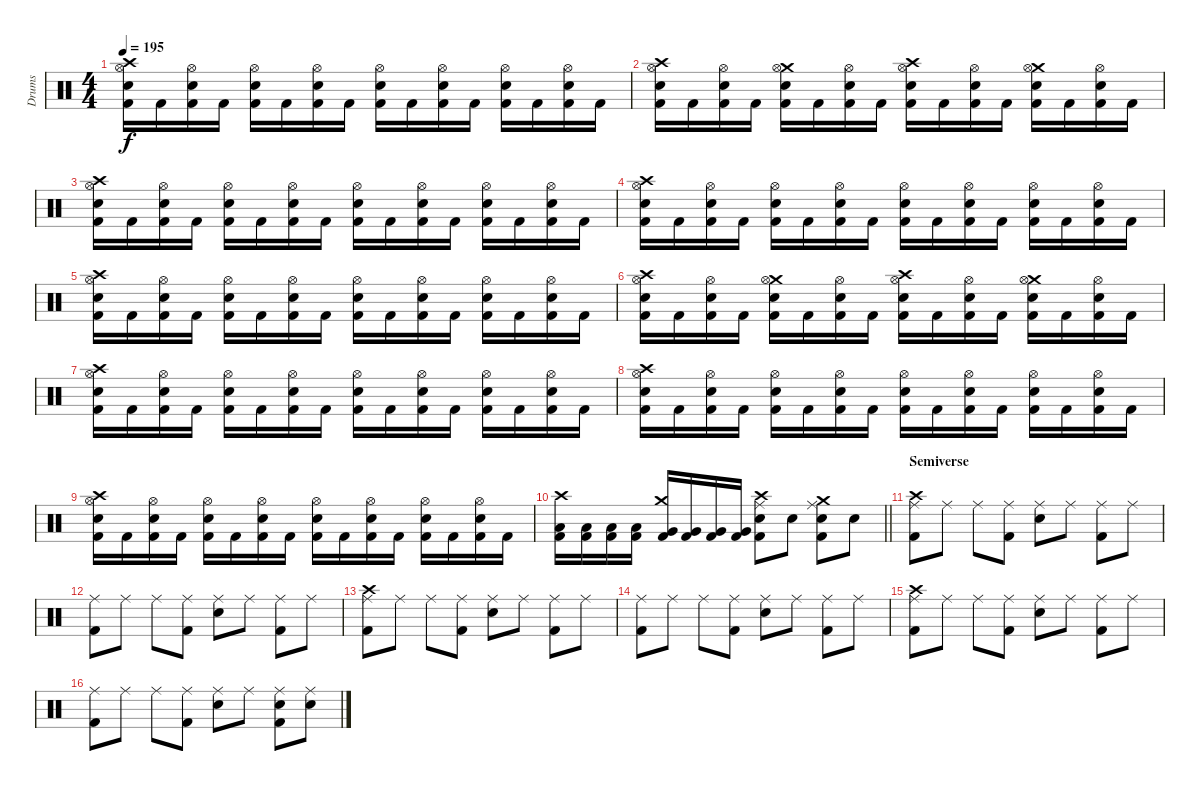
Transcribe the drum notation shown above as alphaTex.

\track ("Drums" "Drums") {instrument percussion}
\staff {score}
\articulation defaults
\ts (4 4)
\tempo 195
\clef neutral
\ks c
("Crash high (hit)" "Hi-Hat (open)" "Snare (hit) 2" "Kick (hit) 2").16{dy f} "Kick (hit) 2".16 ("Hi-Hat (open)" "Snare (hit) 2" "Kick (hit) 2").16 "Kick (hit) 2".16 ("Hi-Hat (open)" "Snare (hit) 2" "Kick (hit) 2").16 "Kick (hit) 2".16 ("Hi-Hat (open)" "Snare (hit) 2" "Kick (hit) 2").16 "Kick (hit) 2".16 ("Hi-Hat (open)" "Snare (hit) 2" "Kick (hit) 2").16 "Kick (hit) 2".16 ("Hi-Hat (open)" "Snare (hit) 2" "Kick (hit) 2").16 "Kick (hit) 2".16 ("Hi-Hat (open)" "Snare (hit) 2" "Kick (hit) 2").16 "Kick (hit) 2".16 ("Hi-Hat (open)" "Snare (hit) 2" "Kick (hit) 2").16 "Kick (hit) 2".16 |
("Crash high (hit)" "Hi-Hat (open)" "Snare (hit) 2" "Kick (hit) 2").16 "Kick (hit) 2".16 ("Hi-Hat (open)" "Snare (hit) 2" "Kick (hit) 2").16 "Kick (hit) 2".16 ("Crash medium (hit)" "Hi-Hat (open)" "Snare (hit) 2" "Kick (hit) 2").16 "Kick (hit) 2".16 ("Hi-Hat (open)" "Snare (hit) 2" "Kick (hit) 2").16 "Kick (hit) 2".16 ("Crash high (hit)" "Hi-Hat (open)" "Snare (hit) 2" "Kick (hit) 2").16 "Kick (hit) 2".16 ("Hi-Hat (open)" "Snare (hit) 2" "Kick (hit) 2").16 "Kick (hit) 2".16 ("Crash medium (hit)" "Hi-Hat (open)" "Snare (hit) 2" "Kick (hit) 2").16 "Kick (hit) 2".16 ("Hi-Hat (open)" "Snare (hit) 2" "Kick (hit) 2").16 "Kick (hit) 2".16 |
("Crash high (hit)" "Hi-Hat (open)" "Snare (hit) 2" "Kick (hit) 2").16 "Kick (hit) 2".16 ("Hi-Hat (open)" "Snare (hit) 2" "Kick (hit) 2").16 "Kick (hit) 2".16 ("Hi-Hat (open)" "Snare (hit) 2" "Kick (hit) 2").16 "Kick (hit) 2".16 ("Hi-Hat (open)" "Snare (hit) 2" "Kick (hit) 2").16 "Kick (hit) 2".16 ("Hi-Hat (open)" "Snare (hit) 2" "Kick (hit) 2").16 "Kick (hit) 2".16 ("Hi-Hat (open)" "Snare (hit) 2" "Kick (hit) 2").16 "Kick (hit) 2".16 ("Hi-Hat (open)" "Snare (hit) 2" "Kick (hit) 2").16 "Kick (hit) 2".16 ("Hi-Hat (open)" "Snare (hit) 2" "Kick (hit) 2").16 "Kick (hit) 2".16 |
("Crash high (hit)" "Hi-Hat (open)" "Snare (hit) 2" "Kick (hit) 2").16 "Kick (hit) 2".16 ("Hi-Hat (open)" "Snare (hit) 2" "Kick (hit) 2").16 "Kick (hit) 2".16 ("Hi-Hat (open)" "Snare (hit) 2" "Kick (hit) 2").16 "Kick (hit) 2".16 ("Hi-Hat (open)" "Snare (hit) 2" "Kick (hit) 2").16 "Kick (hit) 2".16 ("Hi-Hat (open)" "Snare (hit) 2" "Kick (hit) 2").16 "Kick (hit) 2".16 ("Hi-Hat (open)" "Snare (hit) 2" "Kick (hit) 2").16 "Kick (hit) 2".16 ("Hi-Hat (open)" "Snare (hit) 2" "Kick (hit) 2").16 "Kick (hit) 2".16 ("Hi-Hat (open)" "Snare (hit) 2" "Kick (hit) 2").16 "Kick (hit) 2".16 |
("Crash high (hit)" "Hi-Hat (open)" "Snare (hit) 2" "Kick (hit) 2").16 "Kick (hit) 2".16 ("Hi-Hat (open)" "Snare (hit) 2" "Kick (hit) 2").16 "Kick (hit) 2".16 ("Hi-Hat (open)" "Snare (hit) 2" "Kick (hit) 2").16 "Kick (hit) 2".16 ("Hi-Hat (open)" "Snare (hit) 2" "Kick (hit) 2").16 "Kick (hit) 2".16 ("Hi-Hat (open)" "Snare (hit) 2" "Kick (hit) 2").16 "Kick (hit) 2".16 ("Hi-Hat (open)" "Snare (hit) 2" "Kick (hit) 2").16 "Kick (hit) 2".16 ("Hi-Hat (open)" "Snare (hit) 2" "Kick (hit) 2").16 "Kick (hit) 2".16 ("Hi-Hat (open)" "Snare (hit) 2" "Kick (hit) 2").16 "Kick (hit) 2".16 |
("Crash high (hit)" "Hi-Hat (open)" "Snare (hit) 2" "Kick (hit) 2").16 "Kick (hit) 2".16 ("Hi-Hat (open)" "Snare (hit) 2" "Kick (hit) 2").16 "Kick (hit) 2".16 ("Crash medium (hit)" "Hi-Hat (open)" "Snare (hit) 2" "Kick (hit) 2").16 "Kick (hit) 2".16 ("Hi-Hat (open)" "Snare (hit) 2" "Kick (hit) 2").16 "Kick (hit) 2".16 ("Crash high (hit)" "Hi-Hat (open)" "Snare (hit) 2" "Kick (hit) 2").16 "Kick (hit) 2".16 ("Hi-Hat (open)" "Snare (hit) 2" "Kick (hit) 2").16 "Kick (hit) 2".16 ("Crash medium (hit)" "Hi-Hat (open)" "Snare (hit) 2" "Kick (hit) 2").16 "Kick (hit) 2".16 ("Hi-Hat (open)" "Snare (hit) 2" "Kick (hit) 2").16 "Kick (hit) 2".16 |
("Crash high (hit)" "Hi-Hat (open)" "Snare (hit) 2" "Kick (hit) 2").16 "Kick (hit) 2".16 ("Hi-Hat (open)" "Snare (hit) 2" "Kick (hit) 2").16 "Kick (hit) 2".16 ("Hi-Hat (open)" "Snare (hit) 2" "Kick (hit) 2").16 "Kick (hit) 2".16 ("Hi-Hat (open)" "Snare (hit) 2" "Kick (hit) 2").16 "Kick (hit) 2".16 ("Hi-Hat (open)" "Snare (hit) 2" "Kick (hit) 2").16 "Kick (hit) 2".16 ("Hi-Hat (open)" "Snare (hit) 2" "Kick (hit) 2").16 "Kick (hit) 2".16 ("Hi-Hat (open)" "Snare (hit) 2" "Kick (hit) 2").16 "Kick (hit) 2".16 ("Hi-Hat (open)" "Snare (hit) 2" "Kick (hit) 2").16 "Kick (hit) 2".16 |
("Crash high (hit)" "Hi-Hat (open)" "Snare (hit) 2" "Kick (hit) 2").16 "Kick (hit) 2".16 ("Hi-Hat (open)" "Snare (hit) 2" "Kick (hit) 2").16 "Kick (hit) 2".16 ("Hi-Hat (open)" "Snare (hit) 2" "Kick (hit) 2").16 "Kick (hit) 2".16 ("Hi-Hat (open)" "Snare (hit) 2" "Kick (hit) 2").16 "Kick (hit) 2".16 ("Hi-Hat (open)" "Snare (hit) 2" "Kick (hit) 2").16 "Kick (hit) 2".16 ("Hi-Hat (open)" "Snare (hit) 2" "Kick (hit) 2").16 "Kick (hit) 2".16 ("Hi-Hat (open)" "Snare (hit) 2" "Kick (hit) 2").16 "Kick (hit) 2".16 ("Hi-Hat (open)" "Snare (hit) 2" "Kick (hit) 2").16 "Kick (hit) 2".16 |
("Crash high (hit)" "Hi-Hat (open)" "Snare (hit) 2" "Kick (hit) 2").16 "Kick (hit) 2".16 ("Hi-Hat (open)" "Snare (hit) 2" "Kick (hit) 2").16 "Kick (hit) 2".16 ("Hi-Hat (open)" "Snare (hit) 2" "Kick (hit) 2").16 "Kick (hit) 2".16 ("Hi-Hat (open)" "Snare (hit) 2" "Kick (hit) 2").16 "Kick (hit) 2".16 ("Hi-Hat (open)" "Snare (hit) 2" "Kick (hit) 2").16 "Kick (hit) 2".16 ("Hi-Hat (open)" "Snare (hit) 2" "Kick (hit) 2").16 "Kick (hit) 2".16 ("Hi-Hat (open)" "Snare (hit) 2" "Kick (hit) 2").16 "Kick (hit) 2".16 ("Hi-Hat (open)" "Snare (hit) 2" "Kick (hit) 2").16 "Kick (hit) 2".16 |
\barLineRight lightlight
("Crash high (hit)" "Low Tom (hit)" "Kick (hit) 2").16 ("Low Tom (hit)" "Kick (hit) 2").16 ("Low Tom (hit)" "Kick (hit) 2").16 ("Low Tom (hit)" "Kick (hit) 2").16 ("Crash medium (hit)" "Very Low Tom (hit)" "Kick (hit) 2").16 ("Very Low Tom (hit)" "Kick (hit) 2").16 ("Very Low Tom (hit)" "Kick (hit) 2").16 ("Very Low Tom (hit)" "Kick (hit) 2").16 ("Crash high (hit)" "Ride (middle)" "Snare (hit) 2" "Kick (hit) 2").8 "Snare (hit) 2".8 ("Crash medium (hit)" "Ride (middle)" "Snare (hit) 2" "Kick (hit) 2").8 "Snare (hit) 2".8 |
\section ("" "Semiverse")
("Crash high (hit)" "Ride (middle)" "Kick (hit) 2").8 "Ride (middle)".8 "Ride (middle)".8 ("Ride (middle)" "Kick (hit) 2").8 ("Ride (middle)" "Snare (hit) 2").8 "Ride (middle)".8 ("Ride (middle)" "Kick (hit) 2").8 "Ride (middle)".8 |
("Ride (middle)" "Kick (hit) 2").8 "Ride (middle)".8 "Ride (middle)".8 ("Ride (middle)" "Kick (hit) 2").8 ("Ride (middle)" "Snare (hit) 2").8 "Ride (middle)".8 ("Ride (middle)" "Kick (hit) 2").8 "Ride (middle)".8 |
("Crash high (hit)" "Ride (middle)" "Kick (hit) 2").8 "Ride (middle)".8 "Ride (middle)".8 ("Ride (middle)" "Kick (hit) 2").8 ("Ride (middle)" "Snare (hit) 2").8 "Ride (middle)".8 ("Ride (middle)" "Kick (hit) 2").8 "Ride (middle)".8 |
("Ride (middle)" "Kick (hit) 2").8 "Ride (middle)".8 "Ride (middle)".8 ("Ride (middle)" "Kick (hit) 2").8 ("Ride (middle)" "Snare (hit) 2").8 "Ride (middle)".8 ("Ride (middle)" "Kick (hit) 2").8 "Ride (middle)".8 |
("Crash high (hit)" "Ride (middle)" "Kick (hit) 2").8 "Ride (middle)".8 "Ride (middle)".8 ("Ride (middle)" "Kick (hit) 2").8 ("Ride (middle)" "Snare (hit) 2").8 "Ride (middle)".8 ("Ride (middle)" "Kick (hit) 2").8 "Ride (middle)".8 |
("Ride (middle)" "Kick (hit) 2").8 "Ride (middle)".8 "Ride (middle)".8 ("Ride (middle)" "Kick (hit) 2").8 ("Ride (middle)" "Snare (hit) 2").8 "Ride (middle)".8 ("Ride (middle)" "Snare (hit) 2" "Kick (hit) 2").8 ("Ride (middle)" "Snare (hit) 2").8
